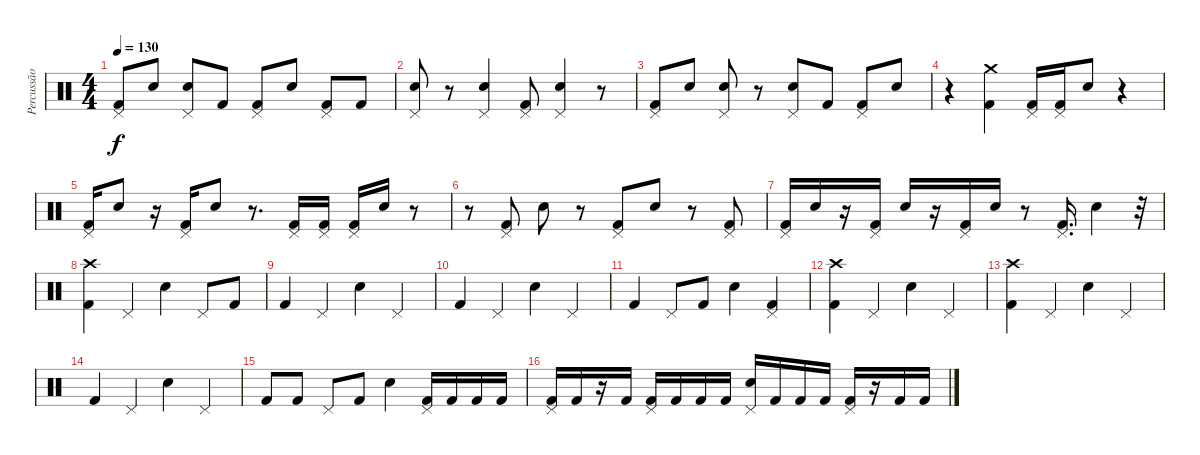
\track ("Percussão" "Percussão") {instrument percussion}
\staff {score}
\articulation defaults
\ts (4 4)
\tempo 130
\clef neutral
\ks c
("Pedal Hi-Hat (hit)" "Kick (hit) 2").8{dy f} "Electric Snare (hit)".8 ("Pedal Hi-Hat (hit)" "Electric Snare (hit)").8 "Kick (hit) 2".8 ("Pedal Hi-Hat (hit)" "Kick (hit) 2").8 "Electric Snare (hit)".8 ("Pedal Hi-Hat (hit)" "Kick (hit) 2").8 "Kick (hit) 2".8 |
("Pedal Hi-Hat (hit)" "Electric Snare (hit)").8 r.8 ("Pedal Hi-Hat (hit)" "Electric Snare (hit)").4 ("Pedal Hi-Hat (hit)" "Kick (hit) 2").8 ("Pedal Hi-Hat (hit)" "Electric Snare (hit)").4 r.8 |
("Pedal Hi-Hat (hit)" "Kick (hit) 2").8 "Electric Snare (hit)".8 ("Pedal Hi-Hat (hit)" "Electric Snare (hit)").8 r.8 ("Pedal Hi-Hat (hit)" "Electric Snare (hit)").8 "Kick (hit) 2".8 ("Pedal Hi-Hat (hit)" "Kick (hit) 2").8 "Electric Snare (hit)".8 |
r.4 ("Crash medium (hit)" "Kick (hit) 2").4 ("Pedal Hi-Hat (hit)" "Kick (hit) 2").16 ("Pedal Hi-Hat (hit)" "Kick (hit) 2").16 "Electric Snare (hit)".8 r.4 |
("Pedal Hi-Hat (hit)" "Kick (hit) 2").16 "Electric Snare (hit)".8 r.16 ("Pedal Hi-Hat (hit)" "Kick (hit) 2").16 "Electric Snare (hit)".8 r.8{d} ("Pedal Hi-Hat (hit)" "Kick (hit) 2").16 ("Pedal Hi-Hat (hit)" "Kick (hit) 2").16 ("Pedal Hi-Hat (hit)" "Kick (hit) 2").16 "Electric Snare (hit)".16 r.8 |
r.8 ("Pedal Hi-Hat (hit)" "Kick (hit) 2").8 "Electric Snare (hit)".8 r.8 ("Pedal Hi-Hat (hit)" "Kick (hit) 2").8 "Electric Snare (hit)".8 r.8 ("Pedal Hi-Hat (hit)" "Kick (hit) 2").8 |
("Pedal Hi-Hat (hit)" "Kick (hit) 2").16 "Electric Snare (hit)".16 r.16 ("Pedal Hi-Hat (hit)" "Kick (hit) 2").16 "Electric Snare (hit)".16 r.16 ("Pedal Hi-Hat (hit)" "Kick (hit) 2").16 "Electric Snare (hit)".16 r.8 ("Pedal Hi-Hat (hit)" "Kick (hit) 2").16{d} "Electric Snare (hit)".4 r.32 |
("Crash high (hit)" "Kick (hit) 2").4 "Pedal Hi-Hat (hit)".4 "Electric Snare (hit)".4 "Pedal Hi-Hat (hit)".8 "Kick (hit) 2".8 |
"Kick (hit) 2".4 "Pedal Hi-Hat (hit)".4 "Electric Snare (hit)".4 "Pedal Hi-Hat (hit)".4 |
"Kick (hit) 2".4 "Pedal Hi-Hat (hit)".4 "Electric Snare (hit)".4 "Pedal Hi-Hat (hit)".4 |
"Kick (hit) 2".4 "Pedal Hi-Hat (hit)".8 "Kick (hit) 2".8 "Electric Snare (hit)".4 ("Pedal Hi-Hat (hit)" "Kick (hit) 2").4 |
("Crash high (hit)" "Kick (hit) 2").4 "Pedal Hi-Hat (hit)".4 "Electric Snare (hit)".4 "Pedal Hi-Hat (hit)".4 |
("Crash high (hit)" "Kick (hit) 2").4 "Pedal Hi-Hat (hit)".4 "Electric Snare (hit)".4 "Pedal Hi-Hat (hit)".4 |
"Kick (hit) 2".4 "Pedal Hi-Hat (hit)".4 "Electric Snare (hit)".4 "Pedal Hi-Hat (hit)".4 |
"Kick (hit) 2".8 "Kick (hit) 2".8 "Pedal Hi-Hat (hit)".8 "Kick (hit) 2".8 "Electric Snare (hit)".4 ("Pedal Hi-Hat (hit)" "Kick (hit) 2").16 "Kick (hit) 2".16 "Kick (hit) 2".16 "Kick (hit) 2".16 |
("Pedal Hi-Hat (hit)" "Kick (hit) 2").16 "Kick (hit) 2".16 r.16 "Kick (hit) 2".16 ("Pedal Hi-Hat (hit)" "Kick (hit) 2").16 "Kick (hit) 2".16 "Kick (hit) 2".16 "Kick (hit) 2".16 ("Pedal Hi-Hat (hit)" "Electric Snare (hit)").16 "Kick (hit) 2".16 "Kick (hit) 2".16 "Kick (hit) 2".16 ("Pedal Hi-Hat (hit)" "Kick (hit) 2").16 r.16 "Kick (hit) 2".16 "Kick (hit) 2".16
